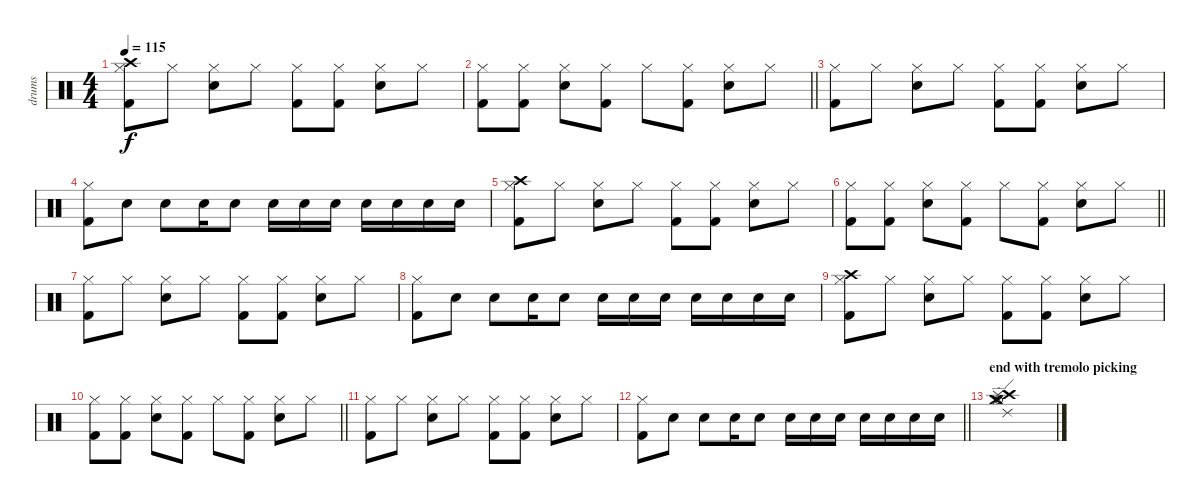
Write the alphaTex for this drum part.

\track ("drums" "drums") {instrument percussion}
\staff {score}
\articulation defaults
\ts (4 4)
\tempo 115
\clef neutral
\ks c
("Hi-Hat (closed)" "Crash high (hit)" "Kick (hit) 2").8{dy f} "Hi-Hat (closed)".8 ("Hi-Hat (closed)" "Electric Snare (hit)").8 "Hi-Hat (closed)".8 ("Hi-Hat (closed)" "Kick (hit) 2").8 ("Hi-Hat (closed)" "Kick (hit) 2").8 ("Hi-Hat (closed)" "Electric Snare (hit)").8 "Hi-Hat (closed)".8 |
\barLineRight lightlight
("Hi-Hat (closed)" "Kick (hit) 2").8 ("Hi-Hat (closed)" "Kick (hit) 2").8 ("Hi-Hat (closed)" "Electric Snare (hit)").8 ("Hi-Hat (closed)" "Kick (hit) 2").8 "Hi-Hat (closed)".8 ("Hi-Hat (closed)" "Kick (hit) 2").8 ("Hi-Hat (closed)" "Electric Snare (hit)").8 "Hi-Hat (closed)".8 |
("Hi-Hat (closed)" "Kick (hit) 2").8 "Hi-Hat (closed)".8 ("Hi-Hat (closed)" "Electric Snare (hit)").8 "Hi-Hat (closed)".8 ("Hi-Hat (closed)" "Kick (hit) 2").8 ("Hi-Hat (closed)" "Kick (hit) 2").8 ("Hi-Hat (closed)" "Electric Snare (hit)").8 "Hi-Hat (closed)".8 |
("Hi-Hat (closed)" "Kick (hit) 2").8 "Electric Snare (hit)".8 "Electric Snare (hit)".8 "Electric Snare (hit)".16 "Electric Snare (hit)".8 "Electric Snare (hit)".16 "Electric Snare (hit)".16 "Electric Snare (hit)".16 "Electric Snare (hit)".16 "Electric Snare (hit)".16 "Electric Snare (hit)".16 "Electric Snare (hit)".16 |
("Hi-Hat (closed)" "Crash high (hit)" "Kick (hit) 2").8 "Hi-Hat (closed)".8 ("Hi-Hat (closed)" "Electric Snare (hit)").8 "Hi-Hat (closed)".8 ("Hi-Hat (closed)" "Kick (hit) 2").8 ("Hi-Hat (closed)" "Kick (hit) 2").8 ("Hi-Hat (closed)" "Electric Snare (hit)").8 "Hi-Hat (closed)".8 |
\barLineRight lightlight
("Hi-Hat (closed)" "Kick (hit) 2").8 ("Hi-Hat (closed)" "Kick (hit) 2").8 ("Hi-Hat (closed)" "Electric Snare (hit)").8 ("Hi-Hat (closed)" "Kick (hit) 2").8 "Hi-Hat (closed)".8 ("Hi-Hat (closed)" "Kick (hit) 2").8 ("Hi-Hat (closed)" "Electric Snare (hit)").8 "Hi-Hat (closed)".8 |
("Hi-Hat (closed)" "Kick (hit) 2").8 "Hi-Hat (closed)".8 ("Hi-Hat (closed)" "Electric Snare (hit)").8 "Hi-Hat (closed)".8 ("Hi-Hat (closed)" "Kick (hit) 2").8 ("Hi-Hat (closed)" "Kick (hit) 2").8 ("Hi-Hat (closed)" "Electric Snare (hit)").8 "Hi-Hat (closed)".8 |
("Hi-Hat (closed)" "Kick (hit) 2").8 "Electric Snare (hit)".8 "Electric Snare (hit)".8 "Electric Snare (hit)".16 "Electric Snare (hit)".8 "Electric Snare (hit)".16 "Electric Snare (hit)".16 "Electric Snare (hit)".16 "Electric Snare (hit)".16 "Electric Snare (hit)".16 "Electric Snare (hit)".16 "Electric Snare (hit)".16 |
("Hi-Hat (closed)" "Crash high (hit)" "Kick (hit) 2").8 "Hi-Hat (closed)".8 ("Hi-Hat (closed)" "Electric Snare (hit)").8 "Hi-Hat (closed)".8 ("Hi-Hat (closed)" "Kick (hit) 2").8 ("Hi-Hat (closed)" "Kick (hit) 2").8 ("Hi-Hat (closed)" "Electric Snare (hit)").8 "Hi-Hat (closed)".8 |
\barLineRight lightlight
("Hi-Hat (closed)" "Kick (hit) 2").8 ("Hi-Hat (closed)" "Kick (hit) 2").8 ("Hi-Hat (closed)" "Electric Snare (hit)").8 ("Hi-Hat (closed)" "Kick (hit) 2").8 "Hi-Hat (closed)".8 ("Hi-Hat (closed)" "Kick (hit) 2").8 ("Hi-Hat (closed)" "Electric Snare (hit)").8 "Hi-Hat (closed)".8 |
("Hi-Hat (closed)" "Kick (hit) 2").8 "Hi-Hat (closed)".8 ("Hi-Hat (closed)" "Electric Snare (hit)").8 "Hi-Hat (closed)".8 ("Hi-Hat (closed)" "Kick (hit) 2").8 ("Hi-Hat (closed)" "Kick (hit) 2").8 ("Hi-Hat (closed)" "Electric Snare (hit)").8 "Hi-Hat (closed)".8 |
\barLineRight lightlight
("Hi-Hat (closed)" "Kick (hit) 2").8 "Electric Snare (hit)".8 "Electric Snare (hit)".8 "Electric Snare (hit)".16 "Electric Snare (hit)".8 "Electric Snare (hit)".16 "Electric Snare (hit)".16 "Electric Snare (hit)".16 "Electric Snare (hit)".16 "Electric Snare (hit)".16 "Electric Snare (hit)".16 "Electric Snare (hit)".16 |
\section ("" "end with tremolo picking")
("Crash high (hit)" "Crash medium (hit)" "Ride (edge) 2" "Splash (hit)" "Hi-Hat (open)" "Hi-Hat (closed)").1
